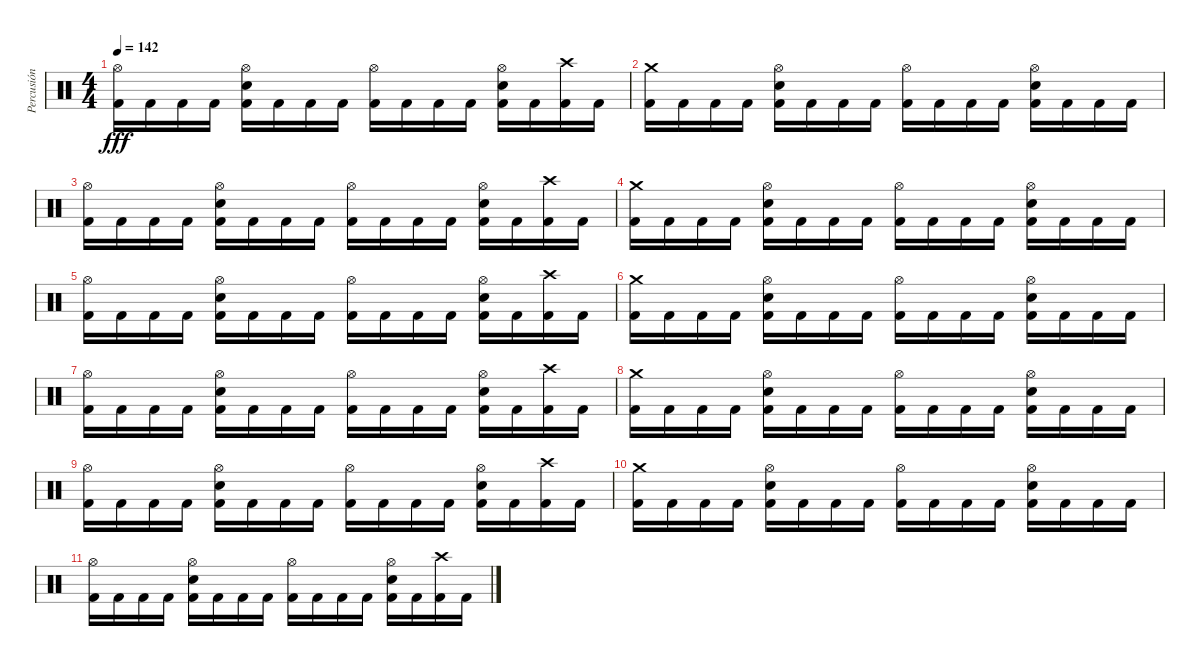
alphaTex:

\track ("Percusión" "Percusión") {instrument percussion}
\staff {score}
\articulation defaults
\ts (4 4)
\tempo 142
\clef neutral
\ks c
("Hi-Hat (open)" "Kick (hit) 2").16{dy fff} "Kick (hit) 2".16 "Kick (hit) 2".16 "Kick (hit) 2".16 ("Hi-Hat (open)" "Electric Snare (hit)" "Kick (hit) 2").16 "Kick (hit) 2".16 "Kick (hit) 2".16 "Kick (hit) 2".16 ("Hi-Hat (open)" "Kick (hit) 2").16 "Kick (hit) 2".16 "Kick (hit) 2".16 "Kick (hit) 2".16 ("Hi-Hat (open)" "Electric Snare (hit)" "Kick (hit) 2").16 "Kick (hit) 2".16 ("Crash high (hit)" "Kick (hit) 2").16 "Kick (hit) 2".16 |
("Crash medium (hit)" "Kick (hit) 2").16 "Kick (hit) 2".16 "Kick (hit) 2".16 "Kick (hit) 2".16 ("Hi-Hat (open)" "Electric Snare (hit)" "Kick (hit) 2").16 "Kick (hit) 2".16 "Kick (hit) 2".16 "Kick (hit) 2".16 ("Hi-Hat (open)" "Kick (hit) 2").16 "Kick (hit) 2".16 "Kick (hit) 2".16 "Kick (hit) 2".16 ("Hi-Hat (open)" "Electric Snare (hit)" "Kick (hit) 2").16 "Kick (hit) 2".16 "Kick (hit) 2".16 "Kick (hit) 2".16 |
("Hi-Hat (open)" "Kick (hit) 2").16 "Kick (hit) 2".16 "Kick (hit) 2".16 "Kick (hit) 2".16 ("Hi-Hat (open)" "Electric Snare (hit)" "Kick (hit) 2").16 "Kick (hit) 2".16 "Kick (hit) 2".16 "Kick (hit) 2".16 ("Hi-Hat (open)" "Kick (hit) 2").16 "Kick (hit) 2".16 "Kick (hit) 2".16 "Kick (hit) 2".16 ("Hi-Hat (open)" "Electric Snare (hit)" "Kick (hit) 2").16 "Kick (hit) 2".16 ("Crash high (hit)" "Kick (hit) 2").16 "Kick (hit) 2".16 |
("Crash medium (hit)" "Kick (hit) 2").16 "Kick (hit) 2".16 "Kick (hit) 2".16 "Kick (hit) 2".16 ("Hi-Hat (open)" "Electric Snare (hit)" "Kick (hit) 2").16 "Kick (hit) 2".16 "Kick (hit) 2".16 "Kick (hit) 2".16 ("Hi-Hat (open)" "Kick (hit) 2").16 "Kick (hit) 2".16 "Kick (hit) 2".16 "Kick (hit) 2".16 ("Hi-Hat (open)" "Electric Snare (hit)" "Kick (hit) 2").16 "Kick (hit) 2".16 "Kick (hit) 2".16 "Kick (hit) 2".16 |
("Hi-Hat (open)" "Kick (hit) 2").16 "Kick (hit) 2".16 "Kick (hit) 2".16 "Kick (hit) 2".16 ("Hi-Hat (open)" "Electric Snare (hit)" "Kick (hit) 2").16 "Kick (hit) 2".16 "Kick (hit) 2".16 "Kick (hit) 2".16 ("Hi-Hat (open)" "Kick (hit) 2").16 "Kick (hit) 2".16 "Kick (hit) 2".16 "Kick (hit) 2".16 ("Hi-Hat (open)" "Electric Snare (hit)" "Kick (hit) 2").16 "Kick (hit) 2".16 ("Crash high (hit)" "Kick (hit) 2").16 "Kick (hit) 2".16 |
("Crash medium (hit)" "Kick (hit) 2").16 "Kick (hit) 2".16 "Kick (hit) 2".16 "Kick (hit) 2".16 ("Hi-Hat (open)" "Electric Snare (hit)" "Kick (hit) 2").16 "Kick (hit) 2".16 "Kick (hit) 2".16 "Kick (hit) 2".16 ("Hi-Hat (open)" "Kick (hit) 2").16 "Kick (hit) 2".16 "Kick (hit) 2".16 "Kick (hit) 2".16 ("Hi-Hat (open)" "Electric Snare (hit)" "Kick (hit) 2").16 "Kick (hit) 2".16 "Kick (hit) 2".16 "Kick (hit) 2".16 |
("Hi-Hat (open)" "Kick (hit) 2").16 "Kick (hit) 2".16 "Kick (hit) 2".16 "Kick (hit) 2".16 ("Hi-Hat (open)" "Electric Snare (hit)" "Kick (hit) 2").16 "Kick (hit) 2".16 "Kick (hit) 2".16 "Kick (hit) 2".16 ("Hi-Hat (open)" "Kick (hit) 2").16 "Kick (hit) 2".16 "Kick (hit) 2".16 "Kick (hit) 2".16 ("Hi-Hat (open)" "Electric Snare (hit)" "Kick (hit) 2").16 "Kick (hit) 2".16 ("Crash high (hit)" "Kick (hit) 2").16 "Kick (hit) 2".16 |
("Crash medium (hit)" "Kick (hit) 2").16 "Kick (hit) 2".16 "Kick (hit) 2".16 "Kick (hit) 2".16 ("Hi-Hat (open)" "Electric Snare (hit)" "Kick (hit) 2").16 "Kick (hit) 2".16 "Kick (hit) 2".16 "Kick (hit) 2".16 ("Hi-Hat (open)" "Kick (hit) 2").16 "Kick (hit) 2".16 "Kick (hit) 2".16 "Kick (hit) 2".16 ("Hi-Hat (open)" "Electric Snare (hit)" "Kick (hit) 2").16 "Kick (hit) 2".16 "Kick (hit) 2".16 "Kick (hit) 2".16 |
("Hi-Hat (open)" "Kick (hit) 2").16 "Kick (hit) 2".16 "Kick (hit) 2".16 "Kick (hit) 2".16 ("Hi-Hat (open)" "Electric Snare (hit)" "Kick (hit) 2").16 "Kick (hit) 2".16 "Kick (hit) 2".16 "Kick (hit) 2".16 ("Hi-Hat (open)" "Kick (hit) 2").16 "Kick (hit) 2".16 "Kick (hit) 2".16 "Kick (hit) 2".16 ("Hi-Hat (open)" "Electric Snare (hit)" "Kick (hit) 2").16 "Kick (hit) 2".16 ("Crash high (hit)" "Kick (hit) 2").16 "Kick (hit) 2".16 |
("Crash medium (hit)" "Kick (hit) 2").16 "Kick (hit) 2".16 "Kick (hit) 2".16 "Kick (hit) 2".16 ("Hi-Hat (open)" "Electric Snare (hit)" "Kick (hit) 2").16 "Kick (hit) 2".16 "Kick (hit) 2".16 "Kick (hit) 2".16 ("Hi-Hat (open)" "Kick (hit) 2").16 "Kick (hit) 2".16 "Kick (hit) 2".16 "Kick (hit) 2".16 ("Hi-Hat (open)" "Electric Snare (hit)" "Kick (hit) 2").16 "Kick (hit) 2".16 "Kick (hit) 2".16 "Kick (hit) 2".16 |
("Hi-Hat (open)" "Kick (hit) 2").16 "Kick (hit) 2".16 "Kick (hit) 2".16 "Kick (hit) 2".16 ("Hi-Hat (open)" "Electric Snare (hit)" "Kick (hit) 2").16 "Kick (hit) 2".16 "Kick (hit) 2".16 "Kick (hit) 2".16 ("Hi-Hat (open)" "Kick (hit) 2").16 "Kick (hit) 2".16 "Kick (hit) 2".16 "Kick (hit) 2".16 ("Hi-Hat (open)" "Electric Snare (hit)" "Kick (hit) 2").16 "Kick (hit) 2".16 ("Crash high (hit)" "Kick (hit) 2").16 "Kick (hit) 2".16
